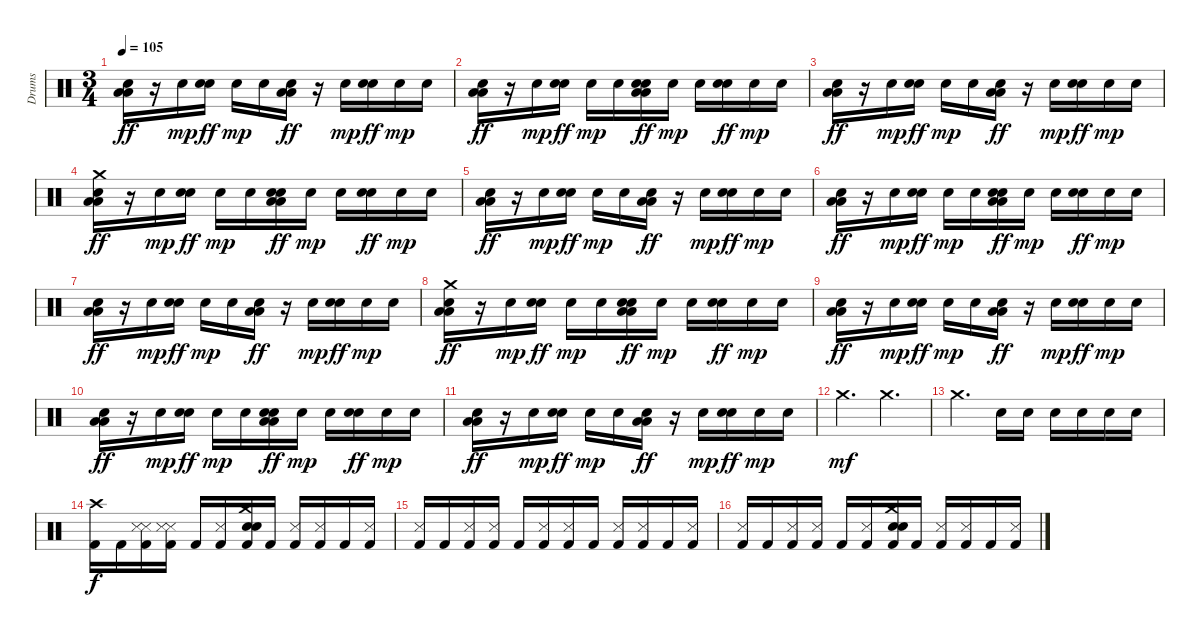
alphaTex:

\track ("Drums" "Drums") {instrument percussion}
\staff {score}
\articulation defaults
\ts (3 4)
\tempo 105
\clef neutral
\ks c
("Low Floor Tom (hit)" "Low Floor Tom (hit)" "Hand Clap (hit)").16{dy ff} r.16 "Snare (hit) 2".16{dy mp} ("Snare (hit) 2" "Hand Clap (hit)").16{dy ff} "Snare (hit) 2".16{dy mp} "Snare (hit) 2".16 ("Low Floor Tom (hit)" "Low Floor Tom (hit)" "Hand Clap (hit)").16{dy ff} r.16 "Snare (hit) 2".16{dy mp} ("Snare (hit) 2" "Hand Clap (hit)").16{dy ff} "Snare (hit) 2".16{dy mp} "Snare (hit) 2".16 |
("Low Floor Tom (hit)" "Low Floor Tom (hit)" "Hand Clap (hit)").16{dy ff} r.16 "Snare (hit) 2".16{dy mp} ("Snare (hit) 2" "Hand Clap (hit)").16{dy ff} "Snare (hit) 2".16{dy mp} "Snare (hit) 2".16 ("Snare (hit) 2" "Low Floor Tom (hit)" "Low Floor Tom (hit)" "Hand Clap (hit)").16{dy ff} "Snare (hit) 2".16{dy mp} "Snare (hit) 2".16 ("Snare (hit) 2" "Hand Clap (hit)").16{dy ff} "Snare (hit) 2".16{dy mp} "Snare (hit) 2".16 |
("Low Floor Tom (hit)" "Low Floor Tom (hit)" "Hand Clap (hit)").16{dy ff} r.16 "Snare (hit) 2".16{dy mp} ("Snare (hit) 2" "Hand Clap (hit)").16{dy ff} "Snare (hit) 2".16{dy mp} "Snare (hit) 2".16 ("Low Floor Tom (hit)" "Low Floor Tom (hit)" "Hand Clap (hit)").16{dy ff} r.16 "Snare (hit) 2".16{dy mp} ("Snare (hit) 2" "Hand Clap (hit)").16{dy ff} "Snare (hit) 2".16{dy mp} "Snare (hit) 2".16 |
("Low Floor Tom (hit)" "Low Floor Tom (hit)" "Hand Clap (hit)" "Crash medium (hit)").16{dy ff} r.16 "Snare (hit) 2".16{dy mp} ("Snare (hit) 2" "Hand Clap (hit)").16{dy ff} "Snare (hit) 2".16{dy mp} "Snare (hit) 2".16 ("Snare (hit) 2" "Low Floor Tom (hit)" "Low Floor Tom (hit)" "Hand Clap (hit)").16{dy ff} "Snare (hit) 2".16{dy mp} "Snare (hit) 2".16 ("Snare (hit) 2" "Hand Clap (hit)").16{dy ff} "Snare (hit) 2".16{dy mp} "Snare (hit) 2".16 |
("Low Floor Tom (hit)" "Low Floor Tom (hit)" "Hand Clap (hit)").16{dy ff} r.16 "Snare (hit) 2".16{dy mp} ("Snare (hit) 2" "Hand Clap (hit)").16{dy ff} "Snare (hit) 2".16{dy mp} "Snare (hit) 2".16 ("Low Floor Tom (hit)" "Low Floor Tom (hit)" "Hand Clap (hit)").16{dy ff} r.16 "Snare (hit) 2".16{dy mp} ("Snare (hit) 2" "Hand Clap (hit)").16{dy ff} "Snare (hit) 2".16{dy mp} "Snare (hit) 2".16 |
("Low Floor Tom (hit)" "Low Floor Tom (hit)" "Hand Clap (hit)").16{dy ff} r.16 "Snare (hit) 2".16{dy mp} ("Snare (hit) 2" "Hand Clap (hit)").16{dy ff} "Snare (hit) 2".16{dy mp} "Snare (hit) 2".16 ("Snare (hit) 2" "Low Floor Tom (hit)" "Low Floor Tom (hit)" "Hand Clap (hit)").16{dy ff} "Snare (hit) 2".16{dy mp} "Snare (hit) 2".16 ("Snare (hit) 2" "Hand Clap (hit)").16{dy ff} "Snare (hit) 2".16{dy mp} "Snare (hit) 2".16 |
("Low Floor Tom (hit)" "Low Floor Tom (hit)" "Hand Clap (hit)").16{dy ff} r.16 "Snare (hit) 2".16{dy mp} ("Snare (hit) 2" "Hand Clap (hit)").16{dy ff} "Snare (hit) 2".16{dy mp} "Snare (hit) 2".16 ("Low Floor Tom (hit)" "Low Floor Tom (hit)" "Hand Clap (hit)").16{dy ff} r.16 "Snare (hit) 2".16{dy mp} ("Snare (hit) 2" "Hand Clap (hit)").16{dy ff} "Snare (hit) 2".16{dy mp} "Snare (hit) 2".16 |
("Low Floor Tom (hit)" "Low Floor Tom (hit)" "Hand Clap (hit)" "Crash medium (hit)").16{dy ff} r.16 "Snare (hit) 2".16{dy mp} ("Snare (hit) 2" "Hand Clap (hit)").16{dy ff} "Snare (hit) 2".16{dy mp} "Snare (hit) 2".16 ("Snare (hit) 2" "Low Floor Tom (hit)" "Low Floor Tom (hit)" "Hand Clap (hit)").16{dy ff} "Snare (hit) 2".16{dy mp} "Snare (hit) 2".16 ("Snare (hit) 2" "Hand Clap (hit)").16{dy ff} "Snare (hit) 2".16{dy mp} "Snare (hit) 2".16 |
("Low Floor Tom (hit)" "Low Floor Tom (hit)" "Hand Clap (hit)").16{dy ff} r.16 "Snare (hit) 2".16{dy mp} ("Snare (hit) 2" "Hand Clap (hit)").16{dy ff} "Snare (hit) 2".16{dy mp} "Snare (hit) 2".16 ("Low Floor Tom (hit)" "Low Floor Tom (hit)" "Hand Clap (hit)").16{dy ff} r.16 "Snare (hit) 2".16{dy mp} ("Snare (hit) 2" "Hand Clap (hit)").16{dy ff} "Snare (hit) 2".16{dy mp} "Snare (hit) 2".16 |
("Low Floor Tom (hit)" "Low Floor Tom (hit)" "Hand Clap (hit)").16{dy ff} r.16 "Snare (hit) 2".16{dy mp} ("Snare (hit) 2" "Hand Clap (hit)").16{dy ff} "Snare (hit) 2".16{dy mp} "Snare (hit) 2".16 ("Snare (hit) 2" "Low Floor Tom (hit)" "Low Floor Tom (hit)" "Hand Clap (hit)").16{dy ff} "Snare (hit) 2".16{dy mp} "Snare (hit) 2".16 ("Snare (hit) 2" "Hand Clap (hit)").16{dy ff} "Snare (hit) 2".16{dy mp} "Snare (hit) 2".16 |
("Low Floor Tom (hit)" "Low Floor Tom (hit)" "Hand Clap (hit)").16{dy ff} r.16 "Snare (hit) 2".16{dy mp} ("Snare (hit) 2" "Hand Clap (hit)").16{dy ff} "Snare (hit) 2".16{dy mp} "Snare (hit) 2".16 ("Low Floor Tom (hit)" "Low Floor Tom (hit)" "Hand Clap (hit)").16{dy ff} r.16 "Snare (hit) 2".16{dy mp} ("Snare (hit) 2" "Hand Clap (hit)").16{dy ff} "Snare (hit) 2".16{dy mp} "Snare (hit) 2".16 |
"Crash medium (hit)".4{d dy mf} "Crash medium (hit)".4{d} |
"Crash medium (hit)".4{d} "Snare (hit) 2".16 "Snare (hit) 2".16 "Snare (hit) 2".16 "Snare (hit) 2".16 "Snare (hit) 2".16 "Snare (hit) 2".16 |
("Crash high (hit)" "Kick (hit) 2").16{dy f} "Kick (hit) 2".16 ("Snare (side stick) 3" "Snare (side stick) 3" "Kick (hit) 2").16 ("Snare (side stick) 3" "Snare (side stick) 3" "Kick (hit) 2").16 "Kick (hit) 2".16 ("Snare (side stick) 3" "Kick (hit) 2").16 ("Crash medium (hit)" "Snare (hit) 2" "Snare (hit) 2" "Kick (hit) 2").16 "Kick (hit) 2".16 ("Snare (side stick) 3" "Kick (hit) 2").16 ("Snare (side stick) 3" "Kick (hit) 2").16 "Kick (hit) 2".16 ("Snare (side stick) 3" "Kick (hit) 2").16 |
("Snare (side stick) 3" "Kick (hit) 2").16 "Kick (hit) 2".16 ("Snare (side stick) 3" "Kick (hit) 2").16 ("Snare (side stick) 3" "Kick (hit) 2").16 "Kick (hit) 2".16 ("Snare (side stick) 3" "Kick (hit) 2").16 ("Snare (side stick) 3" "Kick (hit) 2").16 "Kick (hit) 2".16 ("Snare (side stick) 3" "Kick (hit) 2").16 ("Snare (side stick) 3" "Kick (hit) 2").16 "Kick (hit) 2".16 ("Snare (side stick) 3" "Kick (hit) 2").16 |
("Snare (side stick) 3" "Kick (hit) 2").16 "Kick (hit) 2".16 ("Snare (side stick) 3" "Kick (hit) 2").16 ("Snare (side stick) 3" "Kick (hit) 2").16 "Kick (hit) 2".16 ("Snare (side stick) 3" "Kick (hit) 2").16 ("Crash medium (hit)" "Snare (hit) 2" "Snare (hit) 2" "Kick (hit) 2").16 "Kick (hit) 2".16 ("Snare (side stick) 3" "Kick (hit) 2").16 ("Snare (side stick) 3" "Kick (hit) 2").16 "Kick (hit) 2".16 ("Snare (side stick) 3" "Kick (hit) 2").16
